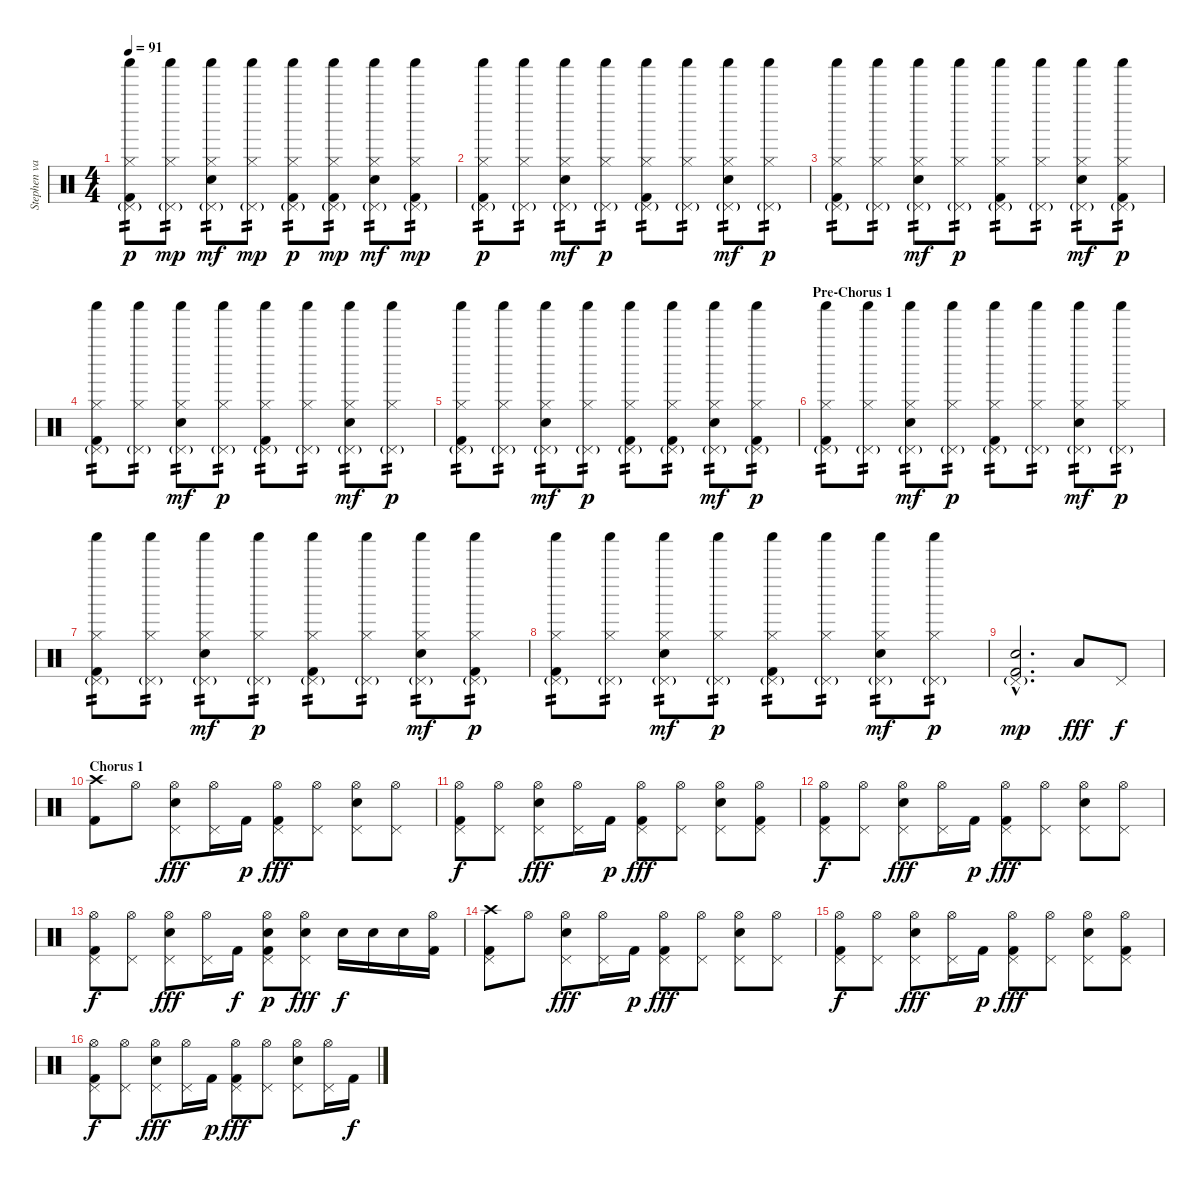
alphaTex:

\track ("Stephen van Haestregt" "Stephen va") {instrument percussion}
\staff {score}
\articulation defaults
\ts (4 4)
\tempo 91
\clef neutral
\ks c
("Hi-Hat (closed)" "Pedal Hi-Hat (hit)"{g} "Shaker (hit)" "Kick (hit) 2").8{tp 2 dy p} ("Hi-Hat (closed)" "Pedal Hi-Hat (hit)"{g} "Shaker (hit)").8{tp 2 dy mp} ("Hi-Hat (closed)" "Pedal Hi-Hat (hit)"{g} "Shaker (hit)" "Electric Snare (hit)").8{tp 2 dy mf} ("Hi-Hat (closed)" "Pedal Hi-Hat (hit)"{g} "Shaker (hit)").8{tp 2 dy mp} ("Hi-Hat (closed)" "Pedal Hi-Hat (hit)"{g} "Shaker (hit)" "Kick (hit) 2").8{tp 2 dy p} ("Hi-Hat (closed)" "Pedal Hi-Hat (hit)"{g} "Shaker (hit)" "Kick (hit) 2").8{tp 2 dy mp} ("Hi-Hat (closed)" "Pedal Hi-Hat (hit)"{g} "Shaker (hit)" "Electric Snare (hit)").8{tp 2 dy mf} ("Hi-Hat (closed)" "Pedal Hi-Hat (hit)"{g} "Shaker (hit)" "Kick (hit) 2").8{tp 2 dy mp} |
("Hi-Hat (closed)" "Pedal Hi-Hat (hit)"{g} "Shaker (hit)" "Kick (hit) 2").8{tp 2 dy p} ("Hi-Hat (closed)" "Pedal Hi-Hat (hit)"{g} "Shaker (hit)").8{tp 2} ("Hi-Hat (closed)" "Pedal Hi-Hat (hit)"{g} "Shaker (hit)" "Electric Snare (hit)").8{tp 2 dy mf} ("Hi-Hat (closed)" "Pedal Hi-Hat (hit)"{g} "Shaker (hit)").8{tp 2 dy p} ("Hi-Hat (closed)" "Pedal Hi-Hat (hit)"{g} "Shaker (hit)" "Kick (hit) 2").8{tp 2} ("Hi-Hat (closed)" "Pedal Hi-Hat (hit)"{g} "Shaker (hit)").8{tp 2} ("Hi-Hat (closed)" "Pedal Hi-Hat (hit)"{g} "Shaker (hit)" "Electric Snare (hit)").8{tp 2 dy mf} ("Hi-Hat (closed)" "Pedal Hi-Hat (hit)"{g} "Shaker (hit)").8{tp 2 dy p} |
("Hi-Hat (closed)" "Pedal Hi-Hat (hit)"{g} "Shaker (hit)" "Kick (hit) 2").8{tp 2} ("Hi-Hat (closed)" "Pedal Hi-Hat (hit)"{g} "Shaker (hit)").8{tp 2} ("Hi-Hat (closed)" "Pedal Hi-Hat (hit)"{g} "Shaker (hit)" "Electric Snare (hit)").8{tp 2 dy mf} ("Hi-Hat (closed)" "Pedal Hi-Hat (hit)"{g} "Shaker (hit)").8{tp 2 dy p} ("Hi-Hat (closed)" "Pedal Hi-Hat (hit)"{g} "Shaker (hit)" "Kick (hit) 2").8{tp 2} ("Hi-Hat (closed)" "Pedal Hi-Hat (hit)"{g} "Shaker (hit)").8{tp 2} ("Hi-Hat (closed)" "Pedal Hi-Hat (hit)"{g} "Shaker (hit)" "Electric Snare (hit)").8{tp 2 dy mf} ("Hi-Hat (closed)" "Pedal Hi-Hat (hit)"{g} "Shaker (hit)" "Kick (hit) 2").8{tp 2 dy p} |
("Hi-Hat (closed)" "Pedal Hi-Hat (hit)"{g} "Shaker (hit)" "Kick (hit) 2").8{tp 2} ("Hi-Hat (closed)" "Pedal Hi-Hat (hit)"{g} "Shaker (hit)").8{tp 2} ("Hi-Hat (closed)" "Pedal Hi-Hat (hit)"{g} "Shaker (hit)" "Electric Snare (hit)").8{tp 2 dy mf} ("Hi-Hat (closed)" "Pedal Hi-Hat (hit)"{g} "Shaker (hit)").8{tp 2 dy p} ("Hi-Hat (closed)" "Pedal Hi-Hat (hit)"{g} "Shaker (hit)" "Kick (hit) 2").8{tp 2} ("Hi-Hat (closed)" "Pedal Hi-Hat (hit)"{g} "Shaker (hit)").8{tp 2} ("Hi-Hat (closed)" "Pedal Hi-Hat (hit)"{g} "Shaker (hit)" "Electric Snare (hit)").8{tp 2 dy mf} ("Hi-Hat (closed)" "Pedal Hi-Hat (hit)"{g} "Shaker (hit)").8{tp 2 dy p} |
("Hi-Hat (closed)" "Pedal Hi-Hat (hit)"{g} "Shaker (hit)" "Kick (hit) 2").8{tp 2} ("Hi-Hat (closed)" "Pedal Hi-Hat (hit)"{g} "Shaker (hit)").8{tp 2} ("Hi-Hat (closed)" "Pedal Hi-Hat (hit)"{g} "Shaker (hit)" "Electric Snare (hit)").8{tp 2 dy mf} ("Hi-Hat (closed)" "Pedal Hi-Hat (hit)"{g} "Shaker (hit)").8{tp 2 dy p} ("Hi-Hat (closed)" "Pedal Hi-Hat (hit)"{g} "Shaker (hit)" "Kick (hit) 2").8{tp 2} ("Hi-Hat (closed)" "Pedal Hi-Hat (hit)"{g} "Shaker (hit)" "Kick (hit) 2").8{tp 2} ("Hi-Hat (closed)" "Pedal Hi-Hat (hit)"{g} "Shaker (hit)" "Electric Snare (hit)").8{tp 2 dy mf} ("Hi-Hat (closed)" "Pedal Hi-Hat (hit)"{g} "Shaker (hit)" "Kick (hit) 2").8{tp 2 dy p} |
\section ("" "Pre-Chorus 1")
("Hi-Hat (closed)" "Pedal Hi-Hat (hit)"{g} "Shaker (hit)" "Kick (hit) 2").8{tp 2} ("Hi-Hat (closed)" "Pedal Hi-Hat (hit)"{g} "Shaker (hit)").8{tp 2} ("Hi-Hat (closed)" "Pedal Hi-Hat (hit)"{g} "Shaker (hit)" "Electric Snare (hit)").8{tp 2 dy mf} ("Hi-Hat (closed)" "Pedal Hi-Hat (hit)"{g} "Shaker (hit)").8{tp 2 dy p} ("Hi-Hat (closed)" "Pedal Hi-Hat (hit)"{g} "Shaker (hit)" "Kick (hit) 2").8{tp 2} ("Hi-Hat (closed)" "Pedal Hi-Hat (hit)"{g} "Shaker (hit)").8{tp 2} ("Hi-Hat (closed)" "Pedal Hi-Hat (hit)"{g} "Shaker (hit)" "Electric Snare (hit)").8{tp 2 dy mf} ("Hi-Hat (closed)" "Pedal Hi-Hat (hit)"{g} "Shaker (hit)").8{tp 2 dy p} |
("Hi-Hat (closed)" "Pedal Hi-Hat (hit)"{g} "Shaker (hit)" "Kick (hit) 2").8{tp 2} ("Hi-Hat (closed)" "Pedal Hi-Hat (hit)"{g} "Shaker (hit)").8{tp 2} ("Hi-Hat (closed)" "Pedal Hi-Hat (hit)"{g} "Shaker (hit)" "Electric Snare (hit)").8{tp 2 dy mf} ("Hi-Hat (closed)" "Pedal Hi-Hat (hit)"{g} "Shaker (hit)").8{tp 2 dy p} ("Hi-Hat (closed)" "Pedal Hi-Hat (hit)"{g} "Shaker (hit)" "Kick (hit) 2").8{tp 2} ("Hi-Hat (closed)" "Pedal Hi-Hat (hit)"{g} "Shaker (hit)").8{tp 2} ("Hi-Hat (closed)" "Pedal Hi-Hat (hit)"{g} "Shaker (hit)" "Electric Snare (hit)").8{tp 2 dy mf} ("Hi-Hat (closed)" "Pedal Hi-Hat (hit)"{g} "Shaker (hit)" "Kick (hit) 2").8{tp 2 dy p} |
("Hi-Hat (closed)" "Pedal Hi-Hat (hit)"{g} "Shaker (hit)" "Kick (hit) 2").8{tp 2} ("Hi-Hat (closed)" "Pedal Hi-Hat (hit)"{g} "Shaker (hit)").8{tp 2} ("Hi-Hat (closed)" "Pedal Hi-Hat (hit)"{g} "Shaker (hit)" "Electric Snare (hit)").8{tp 2 dy mf} ("Hi-Hat (closed)" "Pedal Hi-Hat (hit)"{g} "Shaker (hit)").8{tp 2 dy p} ("Hi-Hat (closed)" "Pedal Hi-Hat (hit)"{g} "Shaker (hit)" "Kick (hit) 2").8{tp 2} ("Hi-Hat (closed)" "Pedal Hi-Hat (hit)"{g} "Shaker (hit)").8{tp 2} ("Hi-Hat (closed)" "Pedal Hi-Hat (hit)"{g} "Shaker (hit)" "Electric Snare (hit)").8{tp 2 dy mf} ("Hi-Hat (closed)" "Pedal Hi-Hat (hit)"{g} "Shaker (hit)").8{tp 2 dy p} |
("Pedal Hi-Hat (hit)"{g hac} "Electric Snare (hit)"{hac} "Kick (hit) 2"{hac}).2{d dy mp} "Low Tom (hit)".8{dy fff volume 16} "Pedal Hi-Hat (hit)".8{dy f} |
\section ("" "Chorus 1")
("Crash high (hit)" "Kick (hit) 2").8 "Hi-Hat (open)".8 ("Pedal Hi-Hat (hit)" "Hi-Hat (open)" "Electric Snare (hit)").8{dy fff} ("Pedal Hi-Hat (hit)" "Hi-Hat (open)").16 "Kick (hit) 2".16{dy p} ("Pedal Hi-Hat (hit)" "Hi-Hat (open)" "Kick (hit) 2").8{dy fff} ("Pedal Hi-Hat (hit)" "Hi-Hat (open)").8 ("Pedal Hi-Hat (hit)" "Hi-Hat (open)" "Electric Snare (hit)").8 ("Pedal Hi-Hat (hit)" "Hi-Hat (open)").8 |
("Pedal Hi-Hat (hit)" "Hi-Hat (open)" "Kick (hit) 2").8{dy f} ("Pedal Hi-Hat (hit)" "Hi-Hat (open)").8 ("Pedal Hi-Hat (hit)" "Hi-Hat (open)" "Electric Snare (hit)").8{dy fff} ("Pedal Hi-Hat (hit)" "Hi-Hat (open)").16 "Kick (hit) 2".16{dy p} ("Pedal Hi-Hat (hit)" "Hi-Hat (open)" "Kick (hit) 2").8{dy fff} ("Pedal Hi-Hat (hit)" "Hi-Hat (open)").8 ("Pedal Hi-Hat (hit)" "Hi-Hat (open)" "Electric Snare (hit)").8 ("Pedal Hi-Hat (hit)" "Hi-Hat (open)" "Kick (hit) 2").8 |
("Pedal Hi-Hat (hit)" "Hi-Hat (open)" "Kick (hit) 2").8{dy f} ("Pedal Hi-Hat (hit)" "Hi-Hat (open)").8 ("Pedal Hi-Hat (hit)" "Hi-Hat (open)" "Electric Snare (hit)").8{dy fff} ("Pedal Hi-Hat (hit)" "Hi-Hat (open)").16 "Kick (hit) 2".16{dy p} ("Pedal Hi-Hat (hit)" "Hi-Hat (open)" "Kick (hit) 2").8{dy fff} ("Pedal Hi-Hat (hit)" "Hi-Hat (open)").8 ("Pedal Hi-Hat (hit)" "Hi-Hat (open)" "Electric Snare (hit)").8 ("Pedal Hi-Hat (hit)" "Hi-Hat (open)").8 |
("Pedal Hi-Hat (hit)" "Hi-Hat (open)" "Kick (hit) 2").8{dy f} ("Pedal Hi-Hat (hit)" "Hi-Hat (open)").8 ("Pedal Hi-Hat (hit)" "Hi-Hat (open)" "Electric Snare (hit)").8{dy fff} ("Pedal Hi-Hat (hit)" "Hi-Hat (open)").16 "Kick (hit) 2".16{dy f} ("Pedal Hi-Hat (hit)" "Hi-Hat (open)" "Kick (hit) 2" "Electric Snare (hit)").8{dy p} ("Pedal Hi-Hat (hit)" "Hi-Hat (open)" "Electric Snare (hit)").8{dy fff} "Electric Snare (hit)".16{dy f} "Electric Snare (hit)".16 "Electric Snare (hit)".16 ("Hi-Hat (open)" "Kick (hit) 2").16 |
("Crash high (hit)" "Pedal Hi-Hat (hit)" "Kick (hit) 2").8 "Hi-Hat (open)".8 ("Pedal Hi-Hat (hit)" "Hi-Hat (open)" "Electric Snare (hit)").8{dy fff} ("Pedal Hi-Hat (hit)" "Hi-Hat (open)").16 "Kick (hit) 2".16{dy p} ("Pedal Hi-Hat (hit)" "Hi-Hat (open)" "Kick (hit) 2").8{dy fff} ("Pedal Hi-Hat (hit)" "Hi-Hat (open)").8 ("Pedal Hi-Hat (hit)" "Hi-Hat (open)" "Electric Snare (hit)").8 ("Pedal Hi-Hat (hit)" "Hi-Hat (open)").8 |
("Pedal Hi-Hat (hit)" "Hi-Hat (open)" "Kick (hit) 2").8{dy f} ("Pedal Hi-Hat (hit)" "Hi-Hat (open)").8 ("Pedal Hi-Hat (hit)" "Hi-Hat (open)" "Electric Snare (hit)").8{dy fff} ("Pedal Hi-Hat (hit)" "Hi-Hat (open)").16 "Kick (hit) 2".16{dy p} ("Pedal Hi-Hat (hit)" "Hi-Hat (open)" "Kick (hit) 2").8{dy fff} ("Pedal Hi-Hat (hit)" "Hi-Hat (open)").8 ("Pedal Hi-Hat (hit)" "Hi-Hat (open)" "Electric Snare (hit)").8 ("Pedal Hi-Hat (hit)" "Hi-Hat (open)" "Kick (hit) 2").8 |
("Pedal Hi-Hat (hit)" "Hi-Hat (open)" "Kick (hit) 2").8{dy f} ("Pedal Hi-Hat (hit)" "Hi-Hat (open)").8 ("Pedal Hi-Hat (hit)" "Hi-Hat (open)" "Electric Snare (hit)").8{dy fff} ("Pedal Hi-Hat (hit)" "Hi-Hat (open)").16 "Kick (hit) 2".16{dy p} ("Pedal Hi-Hat (hit)" "Hi-Hat (open)" "Kick (hit) 2").8{dy fff} ("Pedal Hi-Hat (hit)" "Hi-Hat (open)").8 ("Pedal Hi-Hat (hit)" "Hi-Hat (open)" "Electric Snare (hit)").8 ("Pedal Hi-Hat (hit)" "Hi-Hat (open)").16 "Kick (hit) 2".16{dy f}
